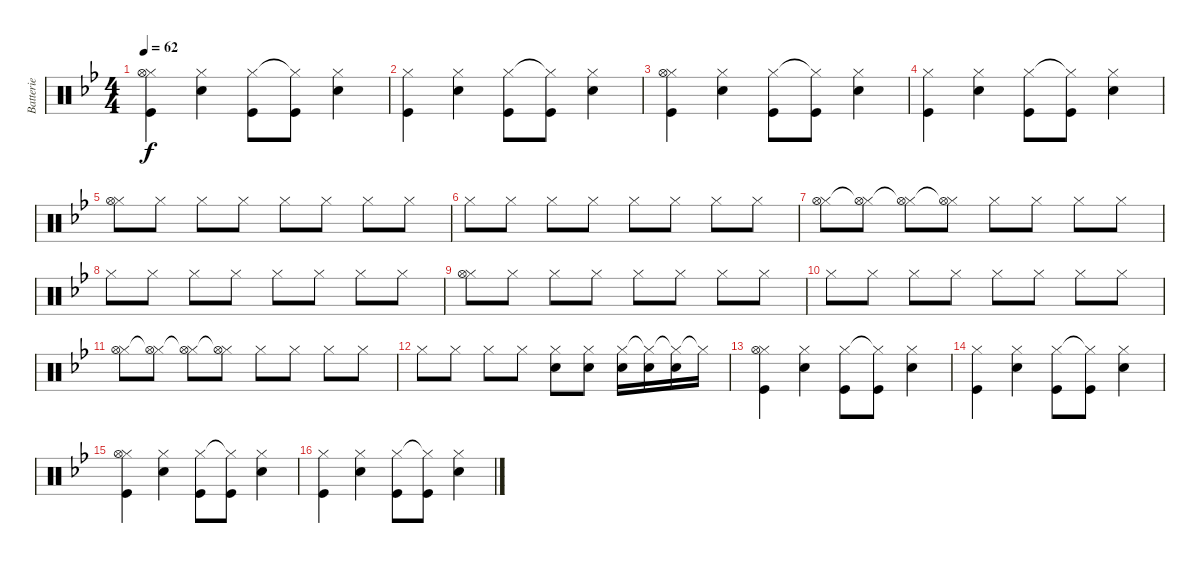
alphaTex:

\track ("Batterie" "Batterie") {instrument percussion}
\staff {score}
\articulation defaults
\ts (4 4)
\tempo 62
\clef neutral
\ks bb
("Hi-Hat (closed)" "Hi-Hat (open)" "Kick (hit)").4{dy f} ("Hi-Hat (closed)" "Snare (hit) 2").4 ("Hi-Hat (closed)" "Kick (hit)").8 ("Hi-Hat (closed)"{t} "Kick (hit)").8 ("Hi-Hat (closed)" "Snare (hit) 2").4 |
("Hi-Hat (closed)" "Kick (hit)").4 ("Hi-Hat (closed)" "Snare (hit) 2").4 ("Hi-Hat (closed)" "Kick (hit)").8 ("Hi-Hat (closed)"{t} "Kick (hit)").8 ("Hi-Hat (closed)" "Snare (hit) 2").4 |
("Hi-Hat (closed)" "Hi-Hat (open)" "Kick (hit)").4 ("Hi-Hat (closed)" "Snare (hit) 2").4 ("Hi-Hat (closed)" "Kick (hit)").8 ("Hi-Hat (closed)"{t} "Kick (hit)").8 ("Hi-Hat (closed)" "Snare (hit) 2").4 |
("Hi-Hat (closed)" "Kick (hit)").4 ("Hi-Hat (closed)" "Snare (hit) 2").4 ("Hi-Hat (closed)" "Kick (hit)").8 ("Hi-Hat (closed)"{t} "Kick (hit)").8 ("Hi-Hat (closed)" "Snare (hit) 2").4 |
("Hi-Hat (closed)" "Hi-Hat (open)").8 "Hi-Hat (closed)".8 "Hi-Hat (closed)".8 "Hi-Hat (closed)".8 "Hi-Hat (closed)".8 "Hi-Hat (closed)".8 "Hi-Hat (closed)".8 "Hi-Hat (closed)".8 |
"Hi-Hat (closed)".8 "Hi-Hat (closed)".8 "Hi-Hat (closed)".8 "Hi-Hat (closed)".8 "Hi-Hat (closed)".8 "Hi-Hat (closed)".8 "Hi-Hat (closed)".8 "Hi-Hat (closed)".8 |
("Hi-Hat (closed)" "Hi-Hat (open)").8 ("Hi-Hat (closed)" "Hi-Hat (open)"{t}).8 ("Hi-Hat (closed)" "Hi-Hat (open)"{t}).8 ("Hi-Hat (closed)" "Hi-Hat (open)"{t}).8 "Hi-Hat (closed)".8 "Hi-Hat (closed)".8 "Hi-Hat (closed)".8 "Hi-Hat (closed)".8 |
"Hi-Hat (closed)".8 "Hi-Hat (closed)".8 "Hi-Hat (closed)".8 "Hi-Hat (closed)".8 "Hi-Hat (closed)".8 "Hi-Hat (closed)".8 "Hi-Hat (closed)".8 "Hi-Hat (closed)".8 |
("Hi-Hat (closed)" "Hi-Hat (open)").8 "Hi-Hat (closed)".8 "Hi-Hat (closed)".8 "Hi-Hat (closed)".8 "Hi-Hat (closed)".8 "Hi-Hat (closed)".8 "Hi-Hat (closed)".8 "Hi-Hat (closed)".8 |
"Hi-Hat (closed)".8 "Hi-Hat (closed)".8 "Hi-Hat (closed)".8 "Hi-Hat (closed)".8 "Hi-Hat (closed)".8 "Hi-Hat (closed)".8 "Hi-Hat (closed)".8 "Hi-Hat (closed)".8 |
("Hi-Hat (closed)" "Hi-Hat (open)").8 ("Hi-Hat (closed)" "Hi-Hat (open)"{t}).8 ("Hi-Hat (closed)" "Hi-Hat (open)"{t}).8 ("Hi-Hat (closed)" "Hi-Hat (open)"{t}).8 "Hi-Hat (closed)".8 "Hi-Hat (closed)".8 "Hi-Hat (closed)".8 "Hi-Hat (closed)".8 |
"Hi-Hat (closed)".8 "Hi-Hat (closed)".8 "Hi-Hat (closed)".8 "Hi-Hat (closed)".8 ("Hi-Hat (closed)" "Snare (hit) 2").8 ("Hi-Hat (closed)" "Snare (hit) 2").8 ("Hi-Hat (closed)" "Snare (hit) 2").16 ("Hi-Hat (closed)"{t} "Snare (hit) 2").16 ("Hi-Hat (closed)"{t} "Snare (hit) 2").16 "Hi-Hat (closed)"{t}.16 |
("Hi-Hat (closed)" "Hi-Hat (open)" "Kick (hit)").4 ("Hi-Hat (closed)" "Snare (hit) 2").4 ("Hi-Hat (closed)" "Kick (hit)").8 ("Hi-Hat (closed)"{t} "Kick (hit)").8 ("Hi-Hat (closed)" "Snare (hit) 2").4 |
("Hi-Hat (closed)" "Kick (hit)").4 ("Hi-Hat (closed)" "Snare (hit) 2").4 ("Hi-Hat (closed)" "Kick (hit)").8 ("Hi-Hat (closed)"{t} "Kick (hit)").8 ("Hi-Hat (closed)" "Snare (hit) 2").4 |
("Hi-Hat (closed)" "Hi-Hat (open)" "Kick (hit)").4 ("Hi-Hat (closed)" "Snare (hit) 2").4 ("Hi-Hat (closed)" "Kick (hit)").8 ("Hi-Hat (closed)"{t} "Kick (hit)").8 ("Hi-Hat (closed)" "Snare (hit) 2").4 |
("Hi-Hat (closed)" "Kick (hit)").4 ("Hi-Hat (closed)" "Snare (hit) 2").4 ("Hi-Hat (closed)" "Kick (hit)").8 ("Hi-Hat (closed)"{t} "Kick (hit)").8 ("Hi-Hat (closed)" "Snare (hit) 2").4
